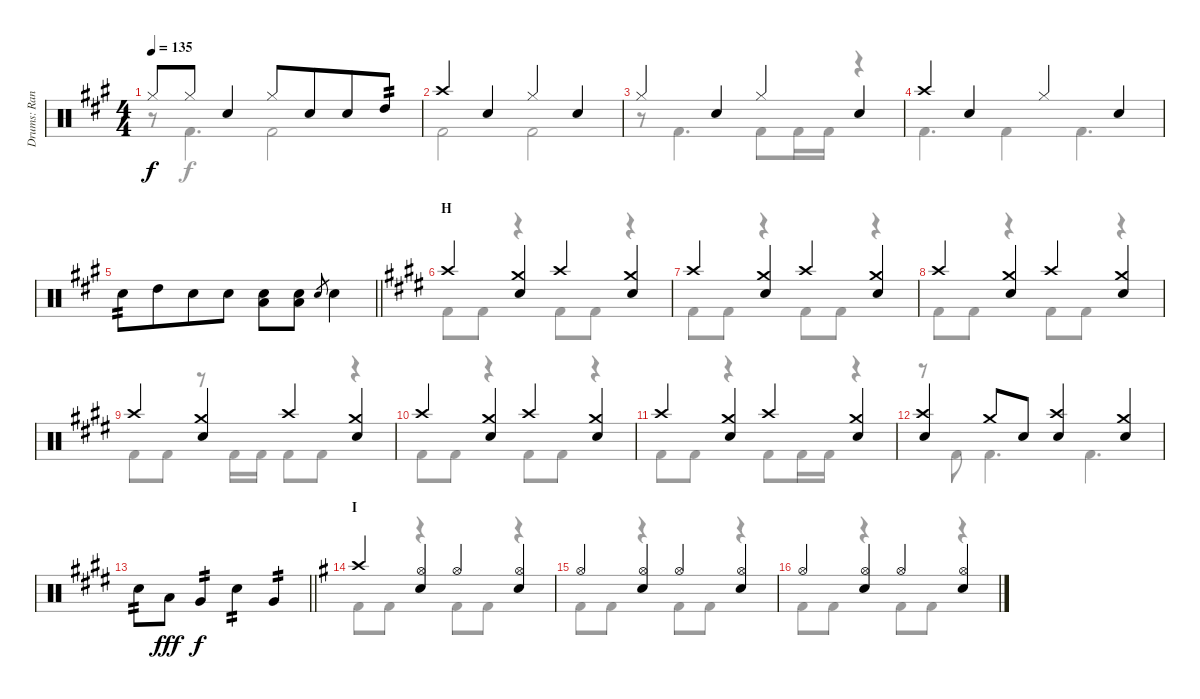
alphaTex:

\track ("Drums: Randy" "Drums: Ran") {instrument percussion}
\staff {score}
\articulation defaults
\voice
\ts (4 4)
\tempo 135
\clef neutral
\ks a "Hi-Hat (closed)".8{dy f} "Hi-Hat (closed)".8 "Snare (hit) 2".4 "Hi-Hat (closed)".8 "Snare (hit) 2".8{beam merge} "Snare (hit) 2".8 "High Tom (hit)".8{tp 2}
|
"Crash high (hit)".4 "Snare (hit) 2".4 "Hi-Hat (closed)".4 "Snare (hit) 2".4 |
"Hi-Hat (closed)".4 "Snare (hit) 2".4 "Hi-Hat (closed)".4 "Snare (hit) 2".4 |
"Crash high (hit)".4 "Snare (hit) 2".4 "Hi-Hat (closed)".4 "Snare (hit) 2".4 |
\barLineRight lightlight "Snare (hit) 2".8{tp 2} "High Tom (hit)".8{beam merge} "Snare (hit) 2".8 "Snare (hit) 2".8
("Snare (hit) 2" "Low Tom (hit)").8 ("Snare (hit) 2" "Low Tom (hit)").8 "Electric Snare (hit)".8{gr} "Snare (hit) 2".4 |
\section ("" "H")
\ks e "Crash high (hit)".4
("Crash medium (hit)" "Snare (hit) 2").4 "Crash high (hit)".4 ("Crash medium (hit)" "Snare (hit) 2").4 |
"Crash high (hit)".4 ("Crash medium (hit)" "Snare (hit) 2").4 "Crash high (hit)".4 ("Crash medium (hit)" "Snare (hit) 2").4 |
"Crash high (hit)".4 ("Crash medium (hit)" "Snare (hit) 2").4 "Crash high (hit)".4 ("Crash medium (hit)" "Snare (hit) 2").4 |
"Crash high (hit)".4 ("Crash medium (hit)" "Snare (hit) 2").4 "Crash high (hit)".4 ("Crash medium (hit)" "Snare (hit) 2").4 |
"Crash high (hit)".4 ("Crash medium (hit)" "Snare (hit) 2").4 "Crash high (hit)".4 ("Crash medium (hit)" "Snare (hit) 2").4 |
"Crash high (hit)".4 ("Crash medium (hit)" "Snare (hit) 2").4 "Crash high (hit)".4 ("Crash medium (hit)" "Snare (hit) 2").4 |
("Crash high (hit)" "Snare (hit) 2").4 "Crash medium (hit)".8 "Snare (hit) 2".8 ("Crash high (hit)" "Snare (hit) 2").4 ("Crash medium (hit)" "Snare (hit) 2").4 |
\barLineRight lightlight "Snare (hit) 2".8{tp 2} "Low Tom (hit)".8{dy fff} "Very Low Tom (hit)".4{tp 2 dy f} "Snare (hit) 2".4{tp 2} "Very Low Tom (hit)".4{tp 2}
|
\section ("" "I")
\ks g "Crash high (hit)".4
("Hi-Hat (open)" "Snare (hit) 2").4 "Hi-Hat (open)".4 ("Hi-Hat (open)" "Snare (hit) 2").4 |
"Hi-Hat (open)".4 ("Hi-Hat (open)" "Snare (hit) 2").4 "Hi-Hat (open)".4 ("Hi-Hat (open)" "Snare (hit) 2").4 |
"Hi-Hat (open)".4 ("Hi-Hat (open)" "Snare (hit) 2").4 "Hi-Hat (open)".4 ("Hi-Hat (open)" "Snare (hit) 2").4
\voice
\clef neutral
\ottava regular
\simile none
\ks a
r.8{dy f} "Kick (hit) 2".4{d} "Kick (hit) 2".2 |
"Kick (hit) 2".2 "Kick (hit) 2".2 |
r.8 "Kick (hit) 2".4{d} "Kick (hit) 2".8 "Kick (hit) 2".16 "Kick (hit) 2".16 r.4 |
"Kick (hit) 2".4{d} "Kick (hit) 2".4 "Kick (hit) 2".4{d} |
\barLineRight lightlight
|
\ks e "Kick (hit) 2".8 "Kick (hit) 2".8
r.4 "Kick (hit) 2".8 "Kick (hit) 2".8 r.4 |
"Kick (hit) 2".8 "Kick (hit) 2".8 r.4 "Kick (hit) 2".8 "Kick (hit) 2".8 r.4 |
"Kick (hit) 2".8 "Kick (hit) 2".8 r.4 "Kick (hit) 2".8 "Kick (hit) 2".8 r.4 |
"Kick (hit) 2".8 "Kick (hit) 2".8 r.8 "Kick (hit) 2".16 "Kick (hit) 2".16 "Kick (hit) 2".8 "Kick (hit) 2".8 r.4 |
"Kick (hit) 2".8 "Kick (hit) 2".8 r.4 "Kick (hit) 2".8 "Kick (hit) 2".8 r.4 |
"Kick (hit) 2".8 "Kick (hit) 2".8 r.4 "Kick (hit) 2".8 "Kick (hit) 2".16 "Kick (hit) 2".16 r.4 |
r.8 "Kick (hit) 2".8 "Kick (hit) 2".4{d} "Kick (hit) 2".4{d} |
\barLineRight lightlight
|
\ks g "Kick (hit) 2".8 "Kick (hit) 2".8
r.4 "Kick (hit) 2".8 "Kick (hit) 2".8 r.4 |
"Kick (hit) 2".8 "Kick (hit) 2".8 r.4 "Kick (hit) 2".8 "Kick (hit) 2".8 r.4 |
"Kick (hit) 2".8 "Kick (hit) 2".8 r.4 "Kick (hit) 2".8 "Kick (hit) 2".8 r.4
